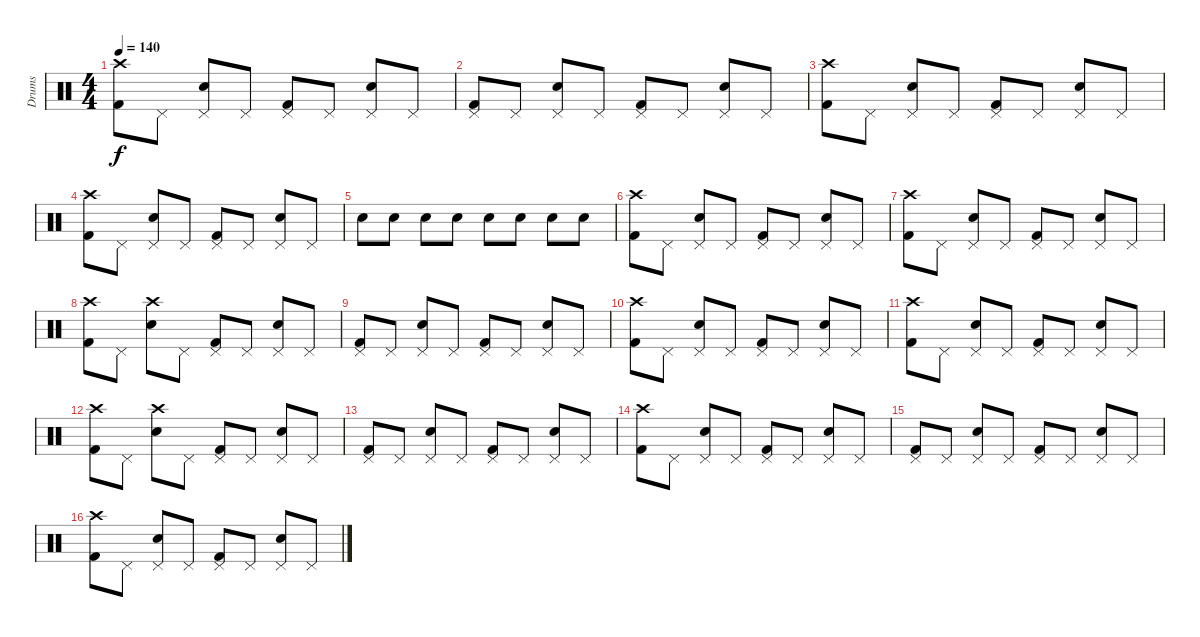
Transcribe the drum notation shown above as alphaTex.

\track ("Drums" "Drums") {instrument percussion}
\staff {score}
\articulation defaults
\ts (4 4)
\tempo 140
\clef neutral
\ks c
("Crash high (hit)" "Kick (hit) 2").8{dy f} "Pedal Hi-Hat (hit)".8 ("Pedal Hi-Hat (hit)" "Snare (hit) 2").8 "Pedal Hi-Hat (hit)".8 ("Pedal Hi-Hat (hit)" "Kick (hit) 2").8 "Pedal Hi-Hat (hit)".8 ("Pedal Hi-Hat (hit)" "Snare (hit) 2").8 "Pedal Hi-Hat (hit)".8 |
("Pedal Hi-Hat (hit)" "Kick (hit) 2").8 "Pedal Hi-Hat (hit)".8 ("Pedal Hi-Hat (hit)" "Snare (hit) 2").8 "Pedal Hi-Hat (hit)".8 ("Pedal Hi-Hat (hit)" "Kick (hit) 2").8 "Pedal Hi-Hat (hit)".8 ("Pedal Hi-Hat (hit)" "Snare (hit) 2").8 "Pedal Hi-Hat (hit)".8 |
("Crash high (hit)" "Kick (hit) 2").8 "Pedal Hi-Hat (hit)".8 ("Pedal Hi-Hat (hit)" "Snare (hit) 2").8 "Pedal Hi-Hat (hit)".8 ("Pedal Hi-Hat (hit)" "Kick (hit) 2").8 "Pedal Hi-Hat (hit)".8 ("Pedal Hi-Hat (hit)" "Snare (hit) 2").8 "Pedal Hi-Hat (hit)".8 |
("Crash high (hit)" "Kick (hit) 2").8 "Pedal Hi-Hat (hit)".8 ("Pedal Hi-Hat (hit)" "Snare (hit) 2").8 "Pedal Hi-Hat (hit)".8 ("Pedal Hi-Hat (hit)" "Kick (hit) 2").8 "Pedal Hi-Hat (hit)".8 ("Pedal Hi-Hat (hit)" "Snare (hit) 2").8 "Pedal Hi-Hat (hit)".8 |
"Snare (hit) 2".8 "Snare (hit) 2".8 "Snare (hit) 2".8 "Snare (hit) 2".8 "Snare (hit) 2".8 "Snare (hit) 2".8 "Snare (hit) 2".8 "Snare (hit) 2".8 |
("Crash high (hit)" "Kick (hit) 2").8 "Pedal Hi-Hat (hit)".8 ("Pedal Hi-Hat (hit)" "Snare (hit) 2").8 "Pedal Hi-Hat (hit)".8 ("Pedal Hi-Hat (hit)" "Kick (hit) 2").8 "Pedal Hi-Hat (hit)".8 ("Pedal Hi-Hat (hit)" "Snare (hit) 2").8 "Pedal Hi-Hat (hit)".8 |
("Crash high (hit)" "Kick (hit) 2").8 "Pedal Hi-Hat (hit)".8 ("Pedal Hi-Hat (hit)" "Snare (hit) 2").8 "Pedal Hi-Hat (hit)".8 ("Pedal Hi-Hat (hit)" "Kick (hit) 2").8 "Pedal Hi-Hat (hit)".8 ("Pedal Hi-Hat (hit)" "Snare (hit) 2").8 "Pedal Hi-Hat (hit)".8 |
("Crash high (hit)" "Kick (hit) 2").8 "Pedal Hi-Hat (hit)".8 ("Crash high (hit)" "Snare (hit) 2").8 "Pedal Hi-Hat (hit)".8 ("Pedal Hi-Hat (hit)" "Kick (hit) 2").8 "Pedal Hi-Hat (hit)".8 ("Pedal Hi-Hat (hit)" "Snare (hit) 2").8 "Pedal Hi-Hat (hit)".8 |
("Pedal Hi-Hat (hit)" "Kick (hit) 2").8 "Pedal Hi-Hat (hit)".8 ("Pedal Hi-Hat (hit)" "Snare (hit) 2").8 "Pedal Hi-Hat (hit)".8 ("Pedal Hi-Hat (hit)" "Kick (hit) 2").8 "Pedal Hi-Hat (hit)".8 ("Pedal Hi-Hat (hit)" "Snare (hit) 2").8 "Pedal Hi-Hat (hit)".8 |
("Crash high (hit)" "Kick (hit) 2").8 "Pedal Hi-Hat (hit)".8 ("Pedal Hi-Hat (hit)" "Snare (hit) 2").8 "Pedal Hi-Hat (hit)".8 ("Pedal Hi-Hat (hit)" "Kick (hit) 2").8 "Pedal Hi-Hat (hit)".8 ("Pedal Hi-Hat (hit)" "Snare (hit) 2").8 "Pedal Hi-Hat (hit)".8 |
("Crash high (hit)" "Kick (hit) 2").8 "Pedal Hi-Hat (hit)".8 ("Pedal Hi-Hat (hit)" "Snare (hit) 2").8 "Pedal Hi-Hat (hit)".8 ("Pedal Hi-Hat (hit)" "Kick (hit) 2").8 "Pedal Hi-Hat (hit)".8 ("Pedal Hi-Hat (hit)" "Snare (hit) 2").8 "Pedal Hi-Hat (hit)".8 |
("Crash high (hit)" "Kick (hit) 2").8 "Pedal Hi-Hat (hit)".8 ("Crash high (hit)" "Snare (hit) 2").8 "Pedal Hi-Hat (hit)".8 ("Pedal Hi-Hat (hit)" "Kick (hit) 2").8 "Pedal Hi-Hat (hit)".8 ("Pedal Hi-Hat (hit)" "Snare (hit) 2").8 "Pedal Hi-Hat (hit)".8 |
("Pedal Hi-Hat (hit)" "Kick (hit) 2").8 "Pedal Hi-Hat (hit)".8 ("Pedal Hi-Hat (hit)" "Snare (hit) 2").8 "Pedal Hi-Hat (hit)".8 ("Pedal Hi-Hat (hit)" "Kick (hit) 2").8 "Pedal Hi-Hat (hit)".8 ("Pedal Hi-Hat (hit)" "Snare (hit) 2").8 "Pedal Hi-Hat (hit)".8 |
("Crash high (hit)" "Kick (hit) 2").8 "Pedal Hi-Hat (hit)".8 ("Pedal Hi-Hat (hit)" "Snare (hit) 2").8 "Pedal Hi-Hat (hit)".8 ("Pedal Hi-Hat (hit)" "Kick (hit) 2").8 "Pedal Hi-Hat (hit)".8 ("Pedal Hi-Hat (hit)" "Snare (hit) 2").8 "Pedal Hi-Hat (hit)".8 |
("Pedal Hi-Hat (hit)" "Kick (hit) 2").8 "Pedal Hi-Hat (hit)".8 ("Pedal Hi-Hat (hit)" "Snare (hit) 2").8 "Pedal Hi-Hat (hit)".8 ("Pedal Hi-Hat (hit)" "Kick (hit) 2").8 "Pedal Hi-Hat (hit)".8 ("Pedal Hi-Hat (hit)" "Snare (hit) 2").8 "Pedal Hi-Hat (hit)".8 |
("Crash high (hit)" "Kick (hit) 2").8 "Pedal Hi-Hat (hit)".8 ("Pedal Hi-Hat (hit)" "Snare (hit) 2").8 "Pedal Hi-Hat (hit)".8 ("Pedal Hi-Hat (hit)" "Kick (hit) 2").8 "Pedal Hi-Hat (hit)".8 ("Pedal Hi-Hat (hit)" "Snare (hit) 2").8 "Pedal Hi-Hat (hit)".8
